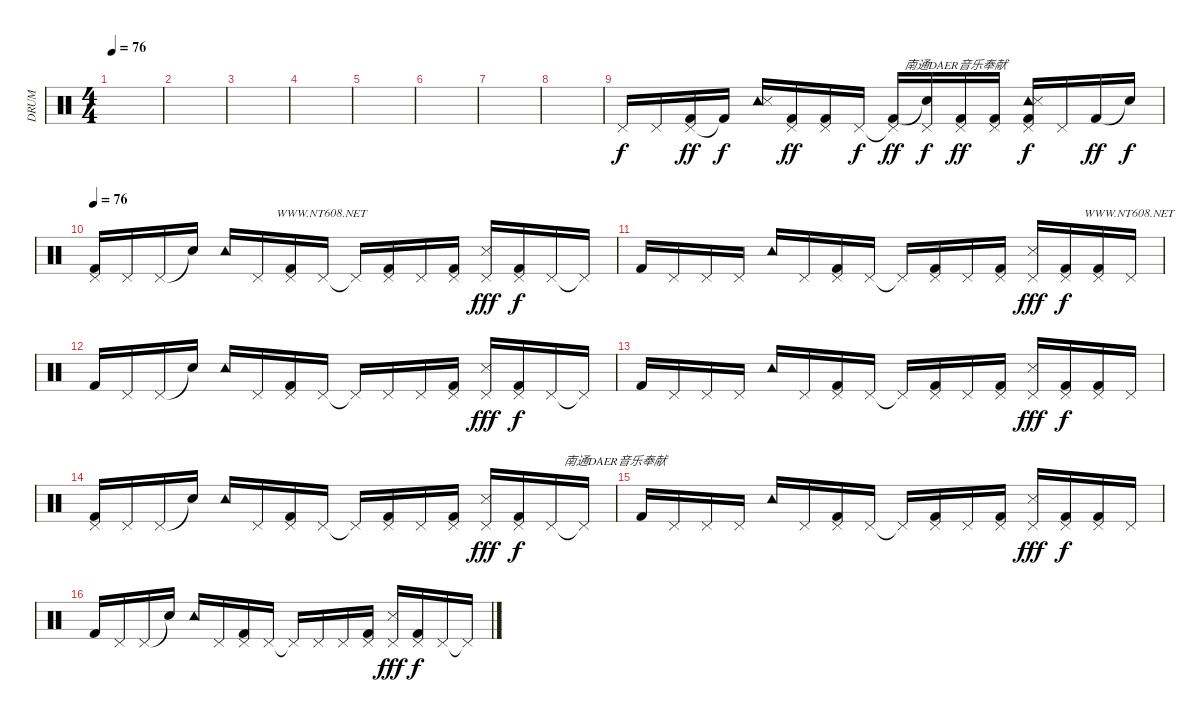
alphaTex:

\track ("DRUM" "DRUM") {instrument percussion}
\staff {score}
\articulation defaults
\ts (4 4)
\tempo 76
\clef neutral
\ks c
|
|
|
|
|
|
|
|
"Pedal Hi-Hat (hit)".16{volume 14 balance 2} "Pedal Hi-Hat (hit)".16 ("Pedal Hi-Hat (hit)" "Kick (hit) 2").16{dy ff} "Kick (hit) 2"{t}.16{dy f} ("Tambourine (hit)" "Snare (side stick) 3").16 ("Pedal Hi-Hat (hit)" "Kick (hit) 2").16{dy ff} ("Pedal Hi-Hat (hit)" "Kick (hit) 2").16 "Pedal Hi-Hat (hit)".16{txt "               南通DAER音乐奉献" dy f} ("Pedal Hi-Hat (hit)"{t} "Kick (hit) 2").16{dy ff} ("Pedal Hi-Hat (hit)" "Snare (hit)"{t}).16{dy f} ("Pedal Hi-Hat (hit)" "Kick (hit) 2").16{dy ff} ("Pedal Hi-Hat (hit)" "Kick (hit) 2").16 ("Pedal Hi-Hat (hit)" "Tambourine (hit)" "Metronome (hit)" "Kick (hit) 2").16{dy f} "Pedal Hi-Hat (hit)".16 "Kick (hit) 2".16{dy ff} "Snare (hit)"{t}.16{dy f} |
\tempo 76
("Pedal Hi-Hat (hit)" "Kick (hit) 2").16{volume 15 balance 8} "Pedal Hi-Hat (hit)".16 "Pedal Hi-Hat (hit)".16 "Snare (hit)"{t}.16 "Tambourine (hit)".16 "Pedal Hi-Hat (hit)".16{txt "      WWW.NT608.NET"} ("Pedal Hi-Hat (hit)" "Kick (hit) 2").16 "Pedal Hi-Hat (hit)".16 "Pedal Hi-Hat (hit)"{t}.16 ("Pedal Hi-Hat (hit)" "Kick (hit) 2").16 "Pedal Hi-Hat (hit)".16 ("Pedal Hi-Hat (hit)" "Kick (hit) 2").16 ("Pedal Hi-Hat (hit)" "Snare (side stick) 3").16{dy fff} ("Pedal Hi-Hat (hit)" "Kick (hit) 2").16{dy f} "Pedal Hi-Hat (hit)".16 "Pedal Hi-Hat (hit)"{t}.16 |
"Kick (hit) 2".16 "Pedal Hi-Hat (hit)".16 "Pedal Hi-Hat (hit)".16 "Pedal Hi-Hat (hit)".16 "Tambourine (hit)".16 "Pedal Hi-Hat (hit)".16 ("Pedal Hi-Hat (hit)" "Kick (hit) 2").16 "Pedal Hi-Hat (hit)".16 "Pedal Hi-Hat (hit)"{t}.16 ("Pedal Hi-Hat (hit)" "Kick (hit) 2").16 "Pedal Hi-Hat (hit)".16 ("Pedal Hi-Hat (hit)" "Kick (hit) 2").16 ("Pedal Hi-Hat (hit)" "Snare (side stick) 3").16{dy fff} ("Pedal Hi-Hat (hit)" "Kick (hit) 2").16{txt "      WWW.NT608.NET" dy f} ("Pedal Hi-Hat (hit)" "Kick (hit) 2").16 "Pedal Hi-Hat (hit)".16 |
"Kick (hit) 2".16 "Pedal Hi-Hat (hit)".16 "Pedal Hi-Hat (hit)".16 "Snare (hit)"{t}.16 "Tambourine (hit)".16 "Pedal Hi-Hat (hit)".16 ("Pedal Hi-Hat (hit)" "Kick (hit) 2").16 "Pedal Hi-Hat (hit)".16 "Pedal Hi-Hat (hit)"{t}.16 "Pedal Hi-Hat (hit)".16 "Pedal Hi-Hat (hit)".16 ("Pedal Hi-Hat (hit)" "Kick (hit) 2").16 ("Pedal Hi-Hat (hit)" "Snare (side stick) 3").16{dy fff} ("Pedal Hi-Hat (hit)" "Kick (hit) 2").16{dy f} "Pedal Hi-Hat (hit)".16 "Pedal Hi-Hat (hit)"{t}.16 |
"Kick (hit) 2".16 "Pedal Hi-Hat (hit)".16 "Pedal Hi-Hat (hit)".16 "Pedal Hi-Hat (hit)".16 "Tambourine (hit)".16 "Pedal Hi-Hat (hit)".16 ("Pedal Hi-Hat (hit)" "Kick (hit) 2").16 "Pedal Hi-Hat (hit)".16 "Pedal Hi-Hat (hit)"{t}.16 ("Pedal Hi-Hat (hit)" "Kick (hit) 2").16 "Pedal Hi-Hat (hit)".16 ("Pedal Hi-Hat (hit)" "Kick (hit) 2").16 ("Pedal Hi-Hat (hit)" "Snare (side stick) 3").16{dy fff} ("Pedal Hi-Hat (hit)" "Kick (hit) 2").16{dy f} ("Pedal Hi-Hat (hit)" "Kick (hit) 2").16 "Pedal Hi-Hat (hit)".16 |
("Pedal Hi-Hat (hit)" "Kick (hit) 2").16 "Pedal Hi-Hat (hit)".16 "Pedal Hi-Hat (hit)".16 "Snare (hit)"{t}.16 "Tambourine (hit)".16 "Pedal Hi-Hat (hit)".16 ("Pedal Hi-Hat (hit)" "Kick (hit) 2").16 "Pedal Hi-Hat (hit)".16 "Pedal Hi-Hat (hit)"{t}.16 ("Pedal Hi-Hat (hit)" "Kick (hit) 2").16 "Pedal Hi-Hat (hit)".16 ("Pedal Hi-Hat (hit)" "Kick (hit) 2").16 ("Pedal Hi-Hat (hit)" "Snare (side stick) 3").16{dy fff} ("Pedal Hi-Hat (hit)" "Kick (hit) 2").16{txt "               南通DAER音乐奉献" dy f} "Pedal Hi-Hat (hit)".16 "Pedal Hi-Hat (hit)"{t}.16 |
"Kick (hit) 2".16 "Pedal Hi-Hat (hit)".16 "Pedal Hi-Hat (hit)".16 "Pedal Hi-Hat (hit)".16 "Tambourine (hit)".16 "Pedal Hi-Hat (hit)".16 ("Pedal Hi-Hat (hit)" "Kick (hit) 2").16 "Pedal Hi-Hat (hit)".16 "Pedal Hi-Hat (hit)"{t}.16 ("Pedal Hi-Hat (hit)" "Kick (hit) 2").16 "Pedal Hi-Hat (hit)".16 ("Pedal Hi-Hat (hit)" "Kick (hit) 2").16 ("Pedal Hi-Hat (hit)" "Snare (side stick) 3").16{dy fff} ("Pedal Hi-Hat (hit)" "Kick (hit) 2").16{dy f} ("Pedal Hi-Hat (hit)" "Kick (hit) 2").16 "Pedal Hi-Hat (hit)".16 |
"Kick (hit) 2".16 "Pedal Hi-Hat (hit)".16 "Pedal Hi-Hat (hit)".16 "Snare (hit)"{t}.16 "Tambourine (hit)".16 "Pedal Hi-Hat (hit)".16 ("Pedal Hi-Hat (hit)" "Kick (hit) 2").16 "Pedal Hi-Hat (hit)".16 "Pedal Hi-Hat (hit)"{t}.16 "Pedal Hi-Hat (hit)".16 "Pedal Hi-Hat (hit)".16 ("Pedal Hi-Hat (hit)" "Kick (hit) 2").16 ("Pedal Hi-Hat (hit)" "Snare (side stick) 3").16{dy fff} ("Pedal Hi-Hat (hit)" "Kick (hit) 2").16{dy f} "Pedal Hi-Hat (hit)".16 "Pedal Hi-Hat (hit)"{t}.16
